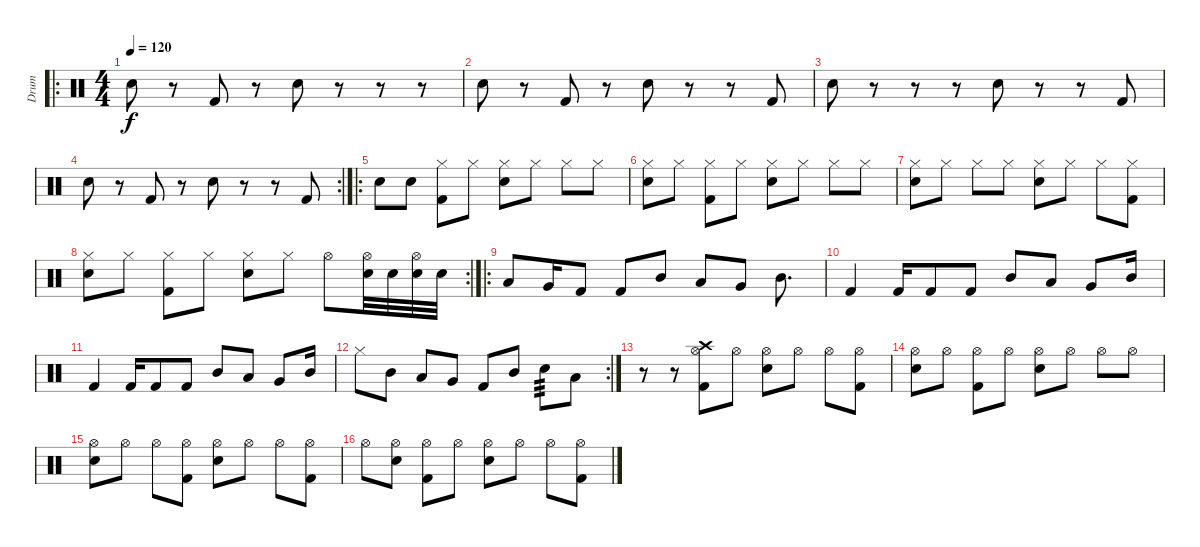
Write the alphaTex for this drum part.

\track ("Drum" "Drum") {instrument percussion}
\staff {score}
\articulation defaults
\ro
\ts (4 4)
\tempo 120
\clef neutral
\ks c "Electric Snare (hit)".8{dy f}
r.8 "Kick (hit) 2".8 r.8 "Electric Snare (hit)".8 r.8 r.8 r.8 |
"Electric Snare (hit)".8 r.8 "Kick (hit) 2".8 r.8 "Electric Snare (hit)".8 r.8 r.8 "Kick (hit) 2".8 |
"Electric Snare (hit)".8 r.8 r.8 r.8 "Electric Snare (hit)".8 r.8 r.8 "Kick (hit) 2".8 |
\rc 2 "Electric Snare (hit)".8
r.8 "Kick (hit) 2".8 r.8 "Electric Snare (hit)".8 r.8 r.8 "Kick (hit) 2".8 |
\ro "Electric Snare (hit)".8 "Electric Snare (hit)".8
("Kick (hit) 2" "Hi-Hat (closed)").8 "Hi-Hat (closed)".8 ("Electric Snare (hit)" "Hi-Hat (closed)").8 "Hi-Hat (closed)".8 "Hi-Hat (closed)".8 "Hi-Hat (closed)".8 |
("Electric Snare (hit)" "Hi-Hat (closed)").8 "Hi-Hat (closed)".8 ("Kick (hit) 2" "Hi-Hat (closed)").8 "Hi-Hat (closed)".8 ("Electric Snare (hit)" "Hi-Hat (closed)").8 "Hi-Hat (closed)".8 "Hi-Hat (closed)".8 "Hi-Hat (closed)".8 |
("Electric Snare (hit)" "Hi-Hat (closed)").8 "Hi-Hat (closed)".8 "Hi-Hat (closed)".8 "Hi-Hat (closed)".8 ("Electric Snare (hit)" "Hi-Hat (closed)").8 "Hi-Hat (closed)".8 "Hi-Hat (closed)".8 ("Kick (hit) 2" "Hi-Hat (closed)").8 |
\rc 2
("Electric Snare (hit)" "Hi-Hat (closed)").8 "Hi-Hat (closed)".8 ("Kick (hit) 2" "Hi-Hat (closed)").8 "Hi-Hat (closed)".8 ("Electric Snare (hit)" "Hi-Hat (closed)").8 "Hi-Hat (closed)".8 "Hi-Hat (open)".8 ("Hi-Hat (open)" "Electric Snare (hit)").32 "Electric Snare (hit)".32 ("Hi-Hat (open)" "Electric Snare (hit)").32 "Electric Snare (hit)".32 |
\ro "Low Tom (hit)".8 "Very Low Tom (hit)".16 "Kick (hit) 2".8 "Kick (hit) 2".8 "Mid Tom (hit)".8 "Low Tom (hit)".8 "Very Low Tom (hit)".8 "Mid Tom (hit)".8{d}
|
"Kick (hit) 2".4 "Kick (hit) 2".16 "Kick (hit) 2".8 "Kick (hit) 2".8 "Mid Tom (hit)".8 "Low Tom (hit)".8 "Very Low Tom (hit)".8 "Mid Tom (hit)".16 |
"Kick (hit) 2".4 "Kick (hit) 2".16 "Kick (hit) 2".8 "Kick (hit) 2".8 "Mid Tom (hit)".8 "Low Tom (hit)".8 "Very Low Tom (hit)".8 "Mid Tom (hit)".16 |
\rc 2 "Hi-Hat (closed)".8 "Mid Tom (hit)".8 "Low Tom (hit)".8 "Very Low Tom (hit)".8 "Kick (hit) 2".8 "Mid Tom (hit)".8 "Electric Snare (hit)".8{tp 3} "Low Floor Tom (hit)".8
|
r.8 r.8 ("Kick (hit) 2" "Crash high (hit)" "Hi-Hat (open)").8 "Hi-Hat (open)".8 ("Electric Snare (hit)" "Hi-Hat (open)").8 "Hi-Hat (open)".8 "Hi-Hat (open)".8 ("Hi-Hat (open)" "Kick (hit) 2").8 |
("Electric Snare (hit)" "Hi-Hat (open)").8 "Hi-Hat (open)".8 ("Kick (hit) 2" "Hi-Hat (open)").8 "Hi-Hat (open)".8 ("Electric Snare (hit)" "Hi-Hat (open)").8 "Hi-Hat (open)".8 "Hi-Hat (open)".8 "Hi-Hat (open)".8 |
("Electric Snare (hit)" "Hi-Hat (open)").8 "Hi-Hat (open)".8 "Hi-Hat (open)".8 ("Hi-Hat (open)" "Kick (hit) 2").8 ("Electric Snare (hit)" "Hi-Hat (open)").8 "Hi-Hat (open)".8 "Hi-Hat (open)".8 ("Kick (hit) 2" "Hi-Hat (open)").8 |
"Hi-Hat (open)".8 ("Hi-Hat (open)" "Electric Snare (hit)").8 ("Hi-Hat (open)" "Kick (hit) 2").8 "Hi-Hat (open)".8 ("Hi-Hat (open)" "Electric Snare (hit)").8 "Hi-Hat (open)".8 "Hi-Hat (open)".8 ("Hi-Hat (open)" "Kick (hit) 2").8
